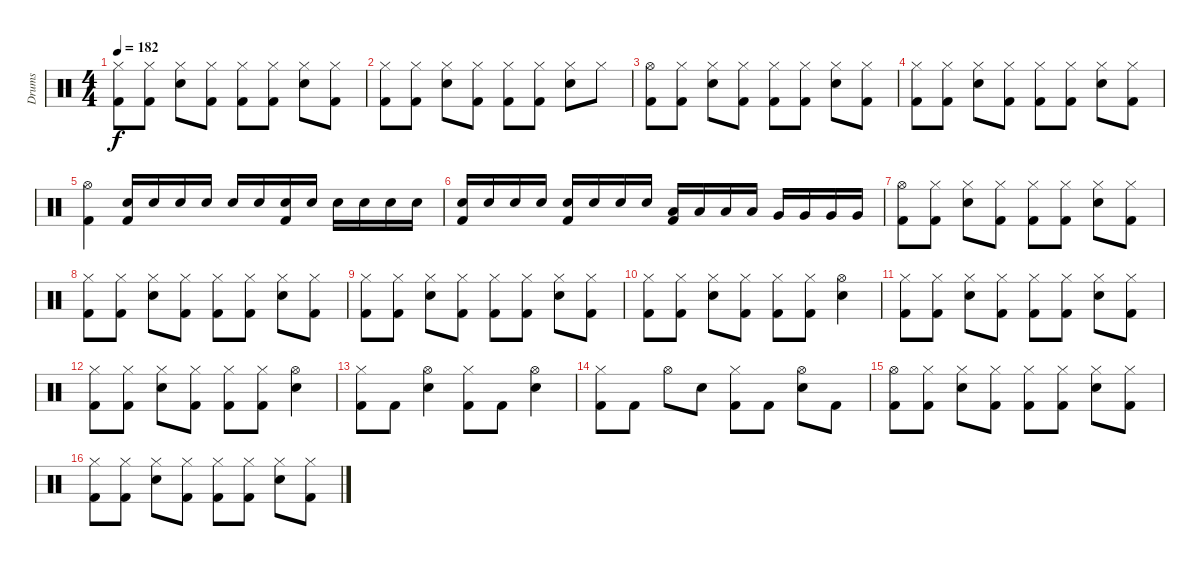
\track ("Drums" "Drums") {instrument percussion}
\staff {score}
\articulation defaults
\ts (4 4)
\tempo 182
\clef neutral
\ks c
("Kick (hit) 2" "Hi-Hat (closed)").8{dy f} ("Kick (hit) 2" "Hi-Hat (closed)").8 ("Snare (hit) 2" "Hi-Hat (closed)").8 ("Kick (hit) 2" "Hi-Hat (closed)").8 ("Kick (hit) 2" "Hi-Hat (closed)").8 ("Kick (hit) 2" "Hi-Hat (closed)").8 ("Snare (hit) 2" "Hi-Hat (closed)").8 ("Kick (hit) 2" "Hi-Hat (closed)").8 |
("Kick (hit) 2" "Hi-Hat (closed)").8 ("Kick (hit) 2" "Hi-Hat (closed)").8 ("Snare (hit) 2" "Hi-Hat (closed)").8 ("Kick (hit) 2" "Hi-Hat (closed)").8 ("Kick (hit) 2" "Hi-Hat (closed)").8 ("Kick (hit) 2" "Hi-Hat (closed)").8 ("Snare (hit) 2" "Hi-Hat (closed)").8 "Hi-Hat (closed)".8 |
("Kick (hit) 2" "Hi-Hat (open)").8 ("Kick (hit) 2" "Hi-Hat (closed)").8 ("Snare (hit) 2" "Hi-Hat (closed)").8 ("Kick (hit) 2" "Hi-Hat (closed)").8 ("Kick (hit) 2" "Hi-Hat (closed)").8 ("Kick (hit) 2" "Hi-Hat (closed)").8 ("Snare (hit) 2" "Hi-Hat (closed)").8 ("Kick (hit) 2" "Hi-Hat (closed)").8 |
("Kick (hit) 2" "Hi-Hat (closed)").8 ("Kick (hit) 2" "Hi-Hat (closed)").8 ("Snare (hit) 2" "Hi-Hat (closed)").8 ("Kick (hit) 2" "Hi-Hat (closed)").8 ("Kick (hit) 2" "Hi-Hat (closed)").8 ("Kick (hit) 2" "Hi-Hat (closed)").8 ("Snare (hit) 2" "Hi-Hat (closed)").8 ("Kick (hit) 2" "Hi-Hat (closed)").8 |
("Kick (hit) 2" "Hi-Hat (open)").4 ("Snare (hit) 2" "Kick (hit) 2").16 "Snare (hit) 2".16 "Snare (hit) 2".16 "Snare (hit) 2".16 "Snare (hit) 2".16 "Snare (hit) 2".16 ("Kick (hit) 2" "Snare (hit) 2").16 "Snare (hit) 2".16 "Snare (hit) 2".16 "Snare (hit) 2".16 "Snare (hit) 2".16 "Snare (hit) 2".16 |
("Snare (hit) 2" "Kick (hit) 2").16 "Snare (hit) 2".16 "Snare (hit) 2".16 "Snare (hit) 2".16 ("Snare (hit) 2" "Kick (hit) 2").16 "Snare (hit) 2".16 "Snare (hit) 2".16 "Snare (hit) 2".16 ("Low Tom (hit)" "Kick (hit) 2").16 "Low Tom (hit)".16 "Low Tom (hit)".16 "Low Tom (hit)".16 "Very Low Tom (hit)".16 "Very Low Tom (hit)".16 "Very Low Tom (hit)".16 "Very Low Tom (hit)".16 |
("Kick (hit) 2" "Hi-Hat (open)").8 ("Kick (hit) 2" "Hi-Hat (closed)").8 ("Snare (hit) 2" "Hi-Hat (closed)").8 ("Kick (hit) 2" "Hi-Hat (closed)").8 ("Kick (hit) 2" "Hi-Hat (closed)").8 ("Kick (hit) 2" "Hi-Hat (closed)").8 ("Snare (hit) 2" "Hi-Hat (closed)").8 ("Kick (hit) 2" "Hi-Hat (closed)").8 |
("Kick (hit) 2" "Hi-Hat (closed)").8 ("Kick (hit) 2" "Hi-Hat (closed)").8 ("Snare (hit) 2" "Hi-Hat (closed)").8 ("Kick (hit) 2" "Hi-Hat (closed)").8 ("Kick (hit) 2" "Hi-Hat (closed)").8 ("Kick (hit) 2" "Hi-Hat (closed)").8 ("Snare (hit) 2" "Hi-Hat (closed)").8 ("Kick (hit) 2" "Hi-Hat (closed)").8 |
("Kick (hit) 2" "Hi-Hat (closed)").8 ("Kick (hit) 2" "Hi-Hat (closed)").8 ("Snare (hit) 2" "Hi-Hat (closed)").8 ("Kick (hit) 2" "Hi-Hat (closed)").8 ("Kick (hit) 2" "Hi-Hat (closed)").8 ("Kick (hit) 2" "Hi-Hat (closed)").8 ("Snare (hit) 2" "Hi-Hat (closed)").8 ("Kick (hit) 2" "Hi-Hat (closed)").8 |
("Kick (hit) 2" "Hi-Hat (closed)").8 ("Kick (hit) 2" "Hi-Hat (closed)").8 ("Snare (hit) 2" "Hi-Hat (closed)").8 ("Kick (hit) 2" "Hi-Hat (closed)").8 ("Kick (hit) 2" "Hi-Hat (closed)").8 ("Kick (hit) 2" "Hi-Hat (closed)").8 ("Snare (hit) 2" "Hi-Hat (open)").4 |
("Kick (hit) 2" "Hi-Hat (closed)").8 ("Kick (hit) 2" "Hi-Hat (closed)").8 ("Snare (hit) 2" "Hi-Hat (closed)").8 ("Kick (hit) 2" "Hi-Hat (closed)").8 ("Kick (hit) 2" "Hi-Hat (closed)").8 ("Kick (hit) 2" "Hi-Hat (closed)").8 ("Snare (hit) 2" "Hi-Hat (closed)").8 ("Kick (hit) 2" "Hi-Hat (closed)").8 |
("Kick (hit) 2" "Hi-Hat (closed)").8 ("Kick (hit) 2" "Hi-Hat (closed)").8 ("Snare (hit) 2" "Hi-Hat (closed)").8 ("Kick (hit) 2" "Hi-Hat (closed)").8 ("Kick (hit) 2" "Hi-Hat (closed)").8 ("Kick (hit) 2" "Hi-Hat (closed)").8 ("Snare (hit) 2" "Hi-Hat (open)").4 |
("Kick (hit) 2" "Hi-Hat (closed)").8 "Kick (hit) 2".8 ("Snare (hit) 2" "Hi-Hat (open)").4 ("Kick (hit) 2" "Hi-Hat (closed)").8 "Kick (hit) 2".8 ("Snare (hit) 2" "Hi-Hat (open)").4 |
("Kick (hit) 2" "Hi-Hat (closed)").8 "Kick (hit) 2".8 "Hi-Hat (open)".8 "Snare (hit) 2".8 ("Kick (hit) 2" "Hi-Hat (closed)").8 "Kick (hit) 2".8 ("Snare (hit) 2" "Hi-Hat (open)").8 "Kick (hit) 2".8 |
("Kick (hit) 2" "Hi-Hat (open)").8 ("Kick (hit) 2" "Hi-Hat (closed)").8 ("Snare (hit) 2" "Hi-Hat (closed)").8 ("Kick (hit) 2" "Hi-Hat (closed)").8 ("Kick (hit) 2" "Hi-Hat (closed)").8 ("Kick (hit) 2" "Hi-Hat (closed)").8 ("Snare (hit) 2" "Hi-Hat (closed)").8 ("Kick (hit) 2" "Hi-Hat (closed)").8 |
("Kick (hit) 2" "Hi-Hat (closed)").8 ("Kick (hit) 2" "Hi-Hat (closed)").8 ("Snare (hit) 2" "Hi-Hat (closed)").8 ("Kick (hit) 2" "Hi-Hat (closed)").8 ("Kick (hit) 2" "Hi-Hat (closed)").8 ("Kick (hit) 2" "Hi-Hat (closed)").8 ("Snare (hit) 2" "Hi-Hat (closed)").8 ("Kick (hit) 2" "Hi-Hat (closed)").8
